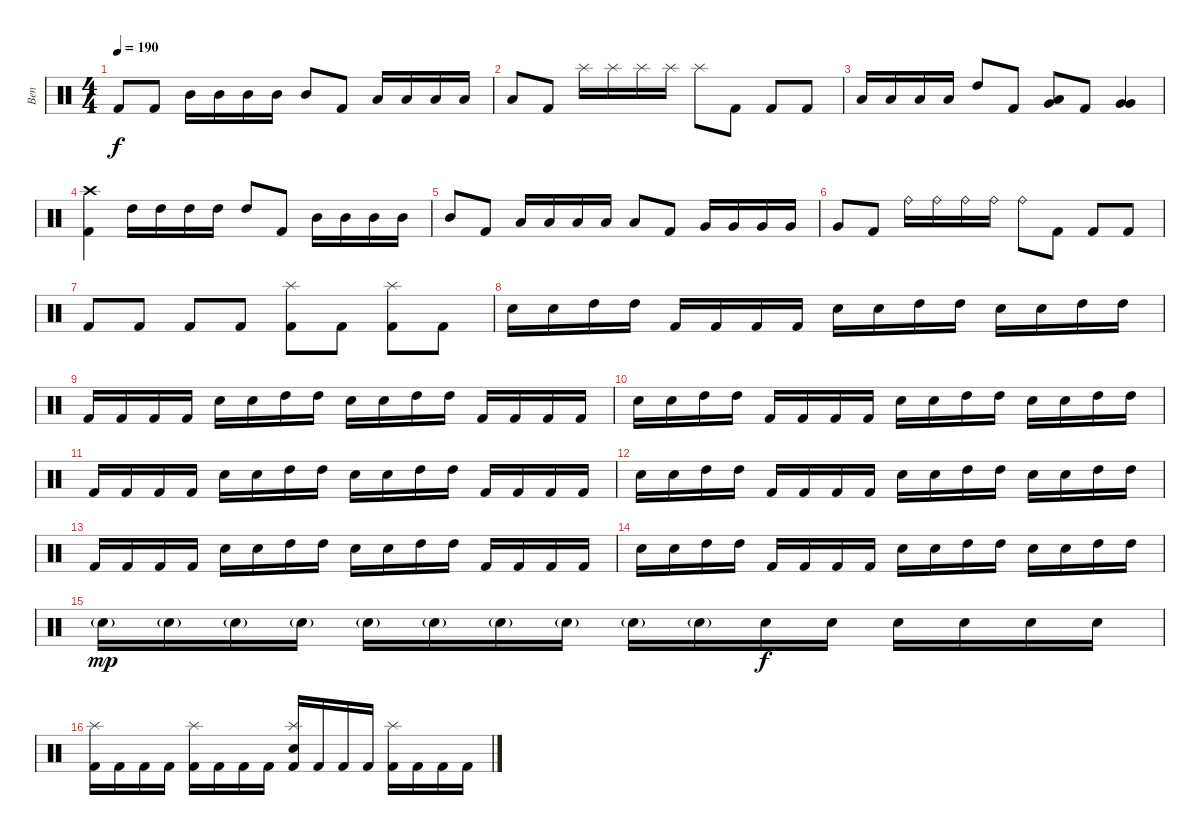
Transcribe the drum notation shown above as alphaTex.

\track ("Ben" "Ben") {instrument percussion}
\staff {score}
\articulation defaults
\ts (4 4)
\tempo 190
\clef neutral
\ks c "Kick (hit) 2".8{dy f} "Kick (hit) 2".8 "Mid Tom (hit)".16 "Mid Tom (hit)".16 "Mid Tom (hit)".16 "Mid Tom (hit)".16 "Mid Tom (hit)".8 "Kick (hit) 2".8 "Low Tom (hit)".16 "Low Tom (hit)".16 "Low Tom (hit)".16 "Low Tom (hit)".16
|
"Low Tom (hit)".8 "Kick (hit) 2".8 "Splash (hit)".16 "Splash (hit)".16 "Splash (hit)".16 "Splash (hit)".16 "Splash (hit)".8 "Kick (hit) 2".8 "Kick (hit) 2".8 "Kick (hit) 2".8 |
"Low Tom (hit)".16 "Low Tom (hit)".16 "Low Tom (hit)".16 "Low Tom (hit)".16 "High Tom (hit)".8 "Kick (hit) 2".8 ("Very Low Tom (hit)" "Low Tom (hit)").8 "Kick (hit) 2".8 ("Very Low Tom (hit)" "Very Low Tom (hit)").4 |
("Crash high (hit)" "Kick (hit) 2").4 "High Tom (hit)".16 "High Tom (hit)".16 "High Tom (hit)".16 "High Tom (hit)".16 "High Tom (hit)".8 "Kick (hit) 2".8 "Mid Tom (hit)".16 "Mid Tom (hit)".16 "Mid Tom (hit)".16 "Mid Tom (hit)".16 |
"Mid Tom (hit)".8 "Kick (hit) 2".8 "Low Tom (hit)".16 "Low Tom (hit)".16 "Low Tom (hit)".16 "Low Tom (hit)".16 "Low Tom (hit)".8 "Kick (hit) 2".8 "Very Low Tom (hit)".16 "Very Low Tom (hit)".16 "Very Low Tom (hit)".16 "Very Low Tom (hit)".16 |
"Very Low Tom (hit)".8 "Kick (hit) 2".8 "Ride (bell)".16 "Ride (bell)".16 "Ride (bell)".16 "Ride (bell)".16 "Ride (bell)".8 "Kick (hit) 2".8 "Kick (hit) 2".8 "Kick (hit) 2".8 |
"Kick (hit) 2".8 "Kick (hit) 2".8 "Kick (hit) 2".8 "Kick (hit) 2".8 ("Splash (hit)" "Kick (hit) 2").8 "Kick (hit) 2".8 ("Splash (hit)" "Kick (hit) 2").8 "Kick (hit) 2".8 |
"Electric Snare (hit)".16 "Electric Snare (hit)".16 "High Tom (hit)".16 "High Tom (hit)".16 "Kick (hit) 2".16 "Kick (hit) 2".16 "Kick (hit) 2".16 "Kick (hit) 2".16 "Electric Snare (hit)".16 "Electric Snare (hit)".16 "High Tom (hit)".16 "High Tom (hit)".16 "Electric Snare (hit)".16 "Electric Snare (hit)".16 "High Tom (hit)".16 "High Tom (hit)".16 |
"Kick (hit) 2".16 "Kick (hit) 2".16 "Kick (hit) 2".16 "Kick (hit) 2".16 "Electric Snare (hit)".16 "Electric Snare (hit)".16 "High Tom (hit)".16 "High Tom (hit)".16 "Electric Snare (hit)".16 "Electric Snare (hit)".16 "High Tom (hit)".16 "High Tom (hit)".16 "Kick (hit) 2".16 "Kick (hit) 2".16 "Kick (hit) 2".16 "Kick (hit) 2".16 |
"Electric Snare (hit)".16 "Electric Snare (hit)".16 "High Tom (hit)".16 "High Tom (hit)".16 "Kick (hit) 2".16 "Kick (hit) 2".16 "Kick (hit) 2".16 "Kick (hit) 2".16 "Electric Snare (hit)".16 "Electric Snare (hit)".16 "High Tom (hit)".16 "High Tom (hit)".16 "Electric Snare (hit)".16 "Electric Snare (hit)".16 "High Tom (hit)".16 "High Tom (hit)".16 |
"Kick (hit) 2".16 "Kick (hit) 2".16 "Kick (hit) 2".16 "Kick (hit) 2".16 "Electric Snare (hit)".16 "Electric Snare (hit)".16 "High Tom (hit)".16 "High Tom (hit)".16 "Electric Snare (hit)".16 "Electric Snare (hit)".16 "High Tom (hit)".16 "High Tom (hit)".16 "Kick (hit) 2".16 "Kick (hit) 2".16 "Kick (hit) 2".16 "Kick (hit) 2".16 |
"Electric Snare (hit)".16 "Electric Snare (hit)".16 "High Tom (hit)".16 "High Tom (hit)".16 "Kick (hit) 2".16 "Kick (hit) 2".16 "Kick (hit) 2".16 "Kick (hit) 2".16 "Electric Snare (hit)".16 "Electric Snare (hit)".16 "High Tom (hit)".16 "High Tom (hit)".16 "Electric Snare (hit)".16 "Electric Snare (hit)".16 "High Tom (hit)".16 "High Tom (hit)".16 |
"Kick (hit) 2".16 "Kick (hit) 2".16 "Kick (hit) 2".16 "Kick (hit) 2".16 "Electric Snare (hit)".16 "Electric Snare (hit)".16 "High Tom (hit)".16 "High Tom (hit)".16 "Electric Snare (hit)".16 "Electric Snare (hit)".16 "High Tom (hit)".16 "High Tom (hit)".16 "Kick (hit) 2".16 "Kick (hit) 2".16 "Kick (hit) 2".16 "Kick (hit) 2".16 |
"Electric Snare (hit)".16 "Electric Snare (hit)".16 "High Tom (hit)".16 "High Tom (hit)".16 "Kick (hit) 2".16 "Kick (hit) 2".16 "Kick (hit) 2".16 "Kick (hit) 2".16 "Electric Snare (hit)".16 "Electric Snare (hit)".16 "High Tom (hit)".16 "High Tom (hit)".16 "Electric Snare (hit)".16 "Electric Snare (hit)".16 "High Tom (hit)".16 "High Tom (hit)".16 |
"Electric Snare (hit)"{g}.16{dy mp} "Electric Snare (hit)"{g}.16 "Electric Snare (hit)"{g}.16 "Electric Snare (hit)"{g}.16 "Electric Snare (hit)"{g}.16 "Electric Snare (hit)"{g}.16 "Electric Snare (hit)"{g}.16 "Electric Snare (hit)"{g}.16 "Electric Snare (hit)"{g}.16 "Electric Snare (hit)"{g}.16 "Electric Snare (hit)".16{dy f} "Electric Snare (hit)".16 "Electric Snare (hit)".16 "Electric Snare (hit)".16 "Electric Snare (hit)".16 "Electric Snare (hit)".16 |
("Splash (hit)" "Kick (hit) 2").16 "Kick (hit) 2".16 "Kick (hit) 2".16 "Kick (hit) 2".16 ("Splash (hit)" "Kick (hit) 2").16 "Kick (hit) 2".16 "Kick (hit) 2".16 "Kick (hit) 2".16 ("Snare (hit) 2" "Splash (hit)" "Kick (hit) 2").16 "Kick (hit) 2".16 "Kick (hit) 2".16 "Kick (hit) 2".16 ("Splash (hit)" "Kick (hit) 2").16 "Kick (hit) 2".16 "Kick (hit) 2".16 "Kick (hit) 2".16
